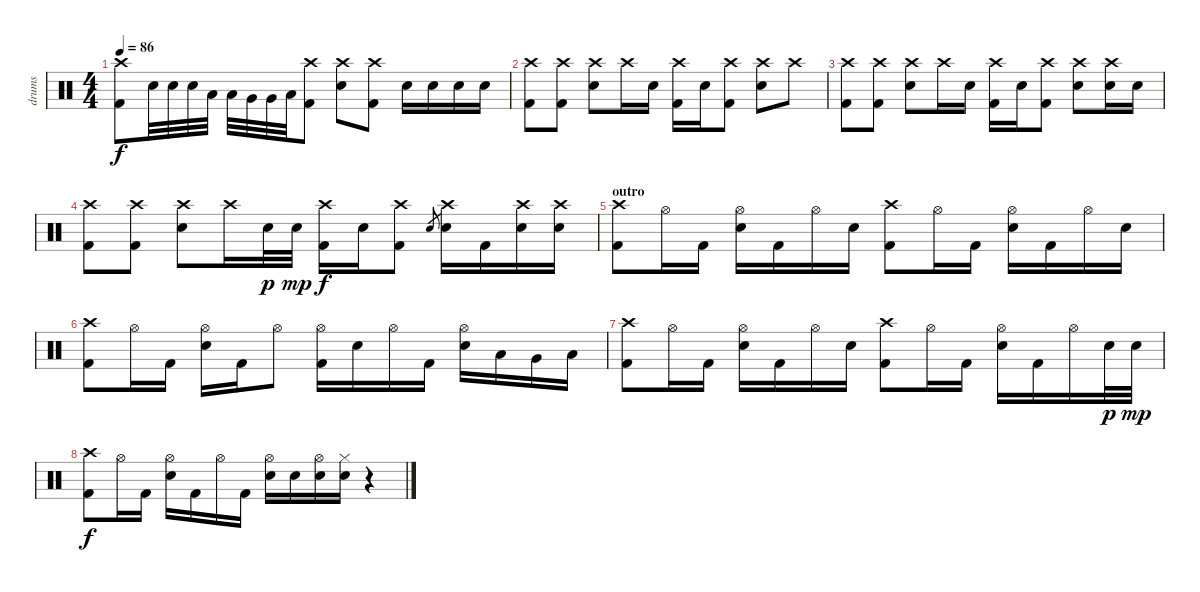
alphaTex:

\track ("drums" "drums") {instrument percussion}
\staff {score}
\articulation defaults
\ts (4 4)
\tempo 86
\clef neutral
\ks c
("Crash high (hit)" "Kick (hit) 2").8{dy f} "Electric Snare (hit)".32 "Electric Snare (hit)".32 "Electric Snare (hit)".32 "Low Tom (hit)".32 "Low Tom (hit)".32 "Very Low Tom (hit)".32 "Very Low Tom (hit)".32 "Low Floor Tom (hit)".32 ("Crash high (hit)" "Kick (hit) 2").8 ("Crash high (hit)" "Electric Snare (hit)").8 ("Crash high (hit)" "Kick (hit) 2").8 "Electric Snare (hit)".16 "Electric Snare (hit)".16 "Electric Snare (hit)".16 "Electric Snare (hit)".16 |
("Crash high (hit)" "Kick (hit) 2").8 ("Crash high (hit)" "Kick (hit) 2").8 ("Crash high (hit)" "Electric Snare (hit)").8 "Crash high (hit)".16 "Electric Snare (hit)".16 ("Crash high (hit)" "Kick (hit) 2").16 "Electric Snare (hit)".16 ("Crash high (hit)" "Kick (hit) 2").8 ("Crash high (hit)" "Electric Snare (hit)").8 "Crash high (hit)".8 |
("Crash high (hit)" "Kick (hit) 2").8 ("Crash high (hit)" "Kick (hit) 2").8 ("Crash high (hit)" "Electric Snare (hit)").8 "Crash high (hit)".16 "Electric Snare (hit)".16 ("Crash high (hit)" "Kick (hit) 2").16 "Electric Snare (hit)".16 ("Crash high (hit)" "Kick (hit) 2").8 ("Crash high (hit)" "Electric Snare (hit)").8 ("Crash high (hit)" "Electric Snare (hit)").16 "Electric Snare (hit)".16 |
("Crash high (hit)" "Kick (hit) 2").8 ("Crash high (hit)" "Kick (hit) 2").8 ("Crash high (hit)" "Electric Snare (hit)").8 "Crash high (hit)".16 "Electric Snare (hit)".32{dy p} "Electric Snare (hit)".32{dy mp} ("Crash high (hit)" "Kick (hit) 2").16{dy f} "Electric Snare (hit)".16 ("Crash high (hit)" "Kick (hit) 2").8 "Electric Snare (hit)".8{gr} ("Crash high (hit)" "Electric Snare (hit)").16 "Kick (hit) 2".16 ("Crash high (hit)" "Electric Snare (hit)").16 ("Crash high (hit)" "Electric Snare (hit)").16 |
\section ("" "outro")
("Crash high (hit)" "Kick (hit) 2").8 "Hi-Hat (open)".16 "Kick (hit) 2".16 ("Hi-Hat (open)" "Electric Snare (hit)").16 "Kick (hit) 2".16 "Hi-Hat (open)".16 "Electric Snare (hit)".16 ("Crash high (hit)" "Kick (hit) 2").8 "Hi-Hat (open)".16 "Kick (hit) 2".16 ("Hi-Hat (open)" "Electric Snare (hit)").16 "Kick (hit) 2".16 "Hi-Hat (open)".16 "Electric Snare (hit)".16 |
("Crash high (hit)" "Kick (hit) 2").8 "Hi-Hat (open)".16 "Kick (hit) 2".16 ("Hi-Hat (open)" "Electric Snare (hit)").16 "Kick (hit) 2".16 "Hi-Hat (open)".8 ("Hi-Hat (open)" "Kick (hit) 2").16 "Electric Snare (hit)".16 "Hi-Hat (open)".16 "Kick (hit) 2".16 ("Hi-Hat (open)" "Electric Snare (hit)").16 "Low Tom (hit)".16 "Very Low Tom (hit)".16 "Low Floor Tom (hit)".16 |
("Crash high (hit)" "Kick (hit) 2").8 "Hi-Hat (open)".16 "Kick (hit) 2".16 ("Hi-Hat (open)" "Electric Snare (hit)").16 "Kick (hit) 2".16 "Hi-Hat (open)".16 "Electric Snare (hit)".16 ("Crash high (hit)" "Kick (hit) 2").8 "Hi-Hat (open)".16 "Kick (hit) 2".16 ("Hi-Hat (open)" "Electric Snare (hit)").16 "Kick (hit) 2".16 "Hi-Hat (open)".16 "Electric Snare (hit)".32{dy p} "Electric Snare (hit)".32{dy mp} |
("Crash high (hit)" "Kick (hit) 2").8{dy f} "Hi-Hat (open)".16 "Kick (hit) 2".16 ("Hi-Hat (open)" "Electric Snare (hit)").16 "Kick (hit) 2".16 "Hi-Hat (open)".16 "Kick (hit) 2".16 ("Hi-Hat (open)" "Electric Snare (hit)").16 "Electric Snare (hit)".16 ("Hi-Hat (open)" "Electric Snare (hit)").16 ("Hi-Hat (closed)" "Electric Snare (hit)").16 r.4
